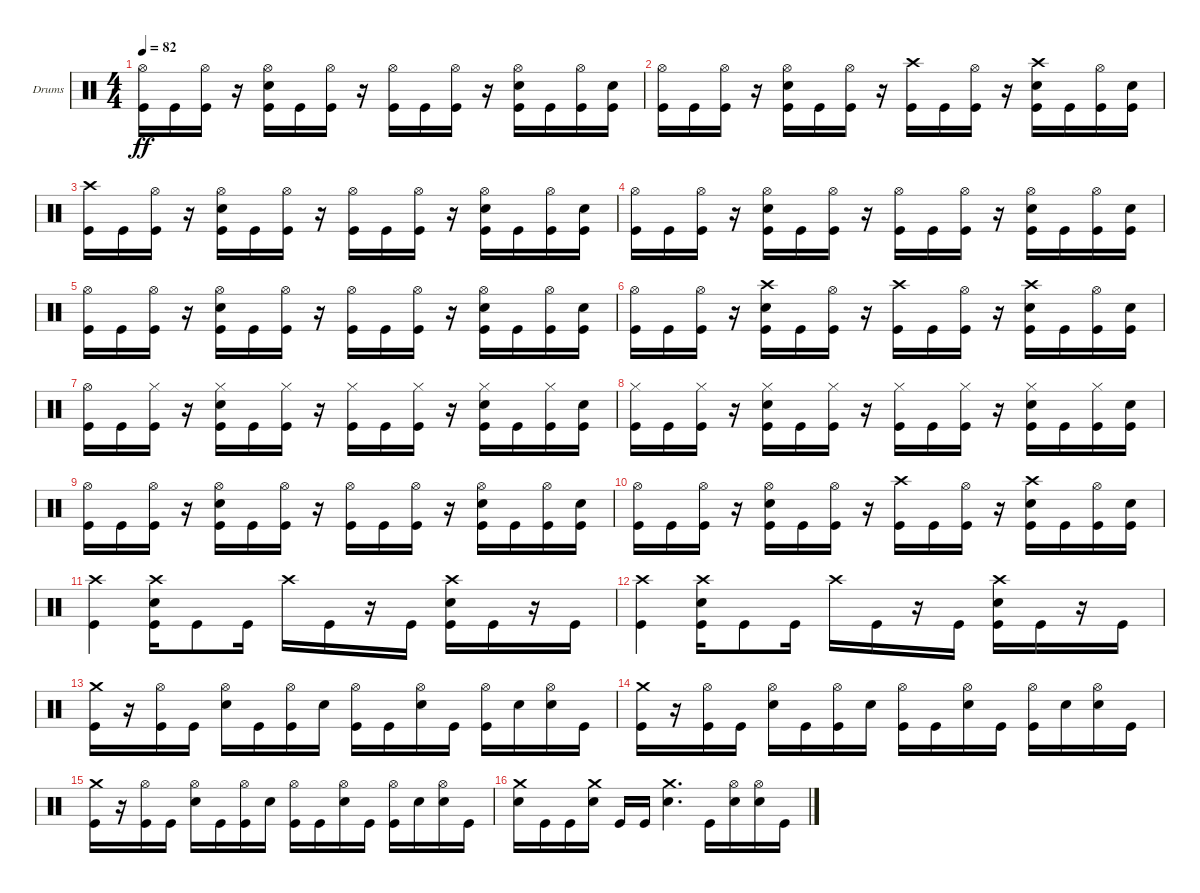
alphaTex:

\bracketExtendMode groupsimilarinstruments
\firstSystemTrackNameOrientation horizontal
\otherSystemsTrackNameOrientation horizontal
\track ("Drumkit" "Drums") {instrument percussion}
\staff {score}
\articulation defaults
\ts (4 4)
\tempo 82
\clef neutral
\ks c
("Kick (hit)" "Hi-Hat (open)").16{dy ff} "Kick (hit)".16 ("Kick (hit)" "Hi-Hat (open)").16 r.16 ("Kick (hit)" "Snare (hit) 2" "Hi-Hat (open)").16 "Kick (hit)".16 ("Kick (hit)" "Hi-Hat (open)").16 r.16 ("Kick (hit)" "Hi-Hat (open)").16 "Kick (hit)".16 ("Kick (hit)" "Hi-Hat (open)").16 r.16 ("Kick (hit)" "Snare (hit) 2" "Hi-Hat (open)").16 "Kick (hit)".16 ("Kick (hit)" "Hi-Hat (open)").16 ("Kick (hit)" "Snare (hit) 2").16 |
("Kick (hit)" "Hi-Hat (open)").16 "Kick (hit)".16 ("Kick (hit)" "Hi-Hat (open)").16 r.16 ("Kick (hit)" "Snare (hit) 2" "Hi-Hat (open)").16 "Kick (hit)".16 ("Kick (hit)" "Hi-Hat (open)").16 r.16 ("Kick (hit)" "Crash high (hit)").16 "Kick (hit)".16 ("Kick (hit)" "Hi-Hat (open)").16 r.16 ("Kick (hit)" "Snare (hit) 2" "Crash high (hit)").16 "Kick (hit)".16 ("Kick (hit)" "Hi-Hat (open)").16 ("Kick (hit)" "Snare (hit) 2").16 |
("Kick (hit)" "Crash high (hit)").16 "Kick (hit)".16 ("Kick (hit)" "Hi-Hat (open)").16 r.16 ("Kick (hit)" "Snare (hit) 2" "Hi-Hat (open)").16 "Kick (hit)".16 ("Kick (hit)" "Hi-Hat (open)").16 r.16 ("Kick (hit)" "Hi-Hat (open)").16 "Kick (hit)".16 ("Kick (hit)" "Hi-Hat (open)").16 r.16 ("Kick (hit)" "Snare (hit) 2" "Hi-Hat (open)").16 "Kick (hit)".16 ("Kick (hit)" "Hi-Hat (open)").16 ("Kick (hit)" "Snare (hit) 2").16 |
("Kick (hit)" "Hi-Hat (open)").16 "Kick (hit)".16 ("Kick (hit)" "Hi-Hat (open)").16 r.16 ("Kick (hit)" "Snare (hit) 2" "Hi-Hat (open)").16 "Kick (hit)".16 ("Kick (hit)" "Hi-Hat (open)").16 r.16 ("Kick (hit)" "Hi-Hat (open)").16 "Kick (hit)".16 ("Kick (hit)" "Hi-Hat (open)").16 r.16 ("Kick (hit)" "Snare (hit) 2" "Hi-Hat (open)").16 "Kick (hit)".16 ("Kick (hit)" "Hi-Hat (open)").16 ("Kick (hit)" "Snare (hit) 2").16 |
("Kick (hit)" "Hi-Hat (open)").16 "Kick (hit)".16 ("Kick (hit)" "Hi-Hat (open)").16 r.16 ("Kick (hit)" "Snare (hit) 2" "Hi-Hat (open)").16 "Kick (hit)".16 ("Kick (hit)" "Hi-Hat (open)").16 r.16 ("Kick (hit)" "Hi-Hat (open)").16 "Kick (hit)".16 ("Kick (hit)" "Hi-Hat (open)").16 r.16 ("Kick (hit)" "Snare (hit) 2" "Hi-Hat (open)").16 "Kick (hit)".16 ("Kick (hit)" "Hi-Hat (open)").16 ("Kick (hit)" "Snare (hit) 2").16 |
("Kick (hit)" "Hi-Hat (open)").16 "Kick (hit)".16 ("Kick (hit)" "Hi-Hat (open)").16 r.16 ("Kick (hit)" "Snare (hit) 2" "Crash high (hit)").16 "Kick (hit)".16 ("Kick (hit)" "Hi-Hat (open)").16 r.16 ("Kick (hit)" "Crash high (hit)").16 "Kick (hit)".16 ("Kick (hit)" "Hi-Hat (open)").16 r.16 ("Kick (hit)" "Snare (hit) 2" "Crash high (hit)").16 "Kick (hit)".16 ("Kick (hit)" "Hi-Hat (open)").16 ("Kick (hit)" "Snare (hit) 2").16 |
("Kick (hit)" "Hi-Hat (open)").16 "Kick (hit)".16 ("Kick (hit)" "Hi-Hat (closed)").16 r.16 ("Kick (hit)" "Snare (hit) 2" "Hi-Hat (closed)").16 "Kick (hit)".16 ("Kick (hit)" "Hi-Hat (closed)").16 r.16 ("Kick (hit)" "Hi-Hat (closed)").16 "Kick (hit)".16 ("Kick (hit)" "Hi-Hat (closed)").16 r.16 ("Kick (hit)" "Snare (hit) 2" "Hi-Hat (closed)").16 "Kick (hit)".16 ("Kick (hit)" "Hi-Hat (closed)").16 ("Kick (hit)" "Snare (hit) 2").16 |
("Kick (hit)" "Hi-Hat (closed)").16 "Kick (hit)".16 ("Kick (hit)" "Hi-Hat (closed)").16 r.16 ("Kick (hit)" "Snare (hit) 2" "Hi-Hat (closed)").16 "Kick (hit)".16 ("Kick (hit)" "Hi-Hat (closed)").16 r.16 ("Kick (hit)" "Hi-Hat (closed)").16 "Kick (hit)".16 ("Kick (hit)" "Hi-Hat (closed)").16 r.16 ("Kick (hit)" "Snare (hit) 2" "Hi-Hat (closed)").16 "Kick (hit)".16 ("Kick (hit)" "Hi-Hat (closed)").16 ("Kick (hit)" "Snare (hit) 2").16 |
("Kick (hit)" "Hi-Hat (open)").16 "Kick (hit)".16 ("Kick (hit)" "Hi-Hat (open)").16 r.16 ("Kick (hit)" "Snare (hit) 2" "Hi-Hat (open)").16 "Kick (hit)".16 ("Kick (hit)" "Hi-Hat (open)").16 r.16 ("Kick (hit)" "Hi-Hat (open)").16 "Kick (hit)".16 ("Kick (hit)" "Hi-Hat (open)").16 r.16 ("Kick (hit)" "Snare (hit) 2" "Hi-Hat (open)").16 "Kick (hit)".16 ("Kick (hit)" "Hi-Hat (open)").16 ("Kick (hit)" "Snare (hit) 2").16 |
("Kick (hit)" "Hi-Hat (open)").16 "Kick (hit)".16 ("Kick (hit)" "Hi-Hat (open)").16 r.16 ("Kick (hit)" "Snare (hit) 2" "Hi-Hat (open)").16 "Kick (hit)".16 ("Kick (hit)" "Hi-Hat (open)").16 r.16 ("Kick (hit)" "Crash high (hit)").16 "Kick (hit)".16 ("Kick (hit)" "Hi-Hat (open)").16 r.16 ("Kick (hit)" "Snare (hit) 2" "Crash high (hit)").16 "Kick (hit)".16 ("Kick (hit)" "Hi-Hat (open)").16 ("Kick (hit)" "Snare (hit) 2").16 |
("Crash high (hit)" "Kick (hit)").4 ("Kick (hit)" "Snare (hit) 2" "Crash high (hit)").16 "Kick (hit)".8 "Kick (hit)".16 "Crash high (hit)".16 "Kick (hit)".16 r.16 "Kick (hit)".16 ("Kick (hit)" "Snare (hit) 2" "Crash high (hit)").16 "Kick (hit)".16 r.16 "Kick (hit)".16 |
("Crash high (hit)" "Kick (hit)").4 ("Kick (hit)" "Snare (hit) 2" "Crash high (hit)").16 "Kick (hit)".8 "Kick (hit)".16 "Crash high (hit)".16 "Kick (hit)".16 r.16 "Kick (hit)".16 ("Kick (hit)" "Snare (hit) 2" "Crash high (hit)").16 "Kick (hit)".16 r.16 "Kick (hit)".16 |
("Crash medium (hit)" "Kick (hit)").16 r.16 ("Kick (hit)" "Hi-Hat (open)").16 "Kick (hit)".16 ("Snare (hit) 2" "Hi-Hat (open)").16 "Kick (hit)".16 ("Kick (hit)" "Hi-Hat (open)").16 "Snare (hit) 2".16 ("Kick (hit)" "Hi-Hat (open)").16 "Kick (hit)".16 ("Snare (hit) 2" "Hi-Hat (open)").16 "Kick (hit)".16 ("Kick (hit)" "Hi-Hat (open)").16 "Snare (hit) 2".16 ("Snare (hit) 2" "Hi-Hat (open)").16 "Kick (hit)".16 |
("Crash medium (hit)" "Kick (hit)").16 r.16 ("Kick (hit)" "Hi-Hat (open)").16 "Kick (hit)".16 ("Snare (hit) 2" "Hi-Hat (open)").16 "Kick (hit)".16 ("Kick (hit)" "Hi-Hat (open)").16 "Snare (hit) 2".16 ("Kick (hit)" "Hi-Hat (open)").16 "Kick (hit)".16 ("Snare (hit) 2" "Hi-Hat (open)").16 "Kick (hit)".16 ("Kick (hit)" "Hi-Hat (open)").16 "Snare (hit) 2".16 ("Snare (hit) 2" "Hi-Hat (open)").16 "Kick (hit)".16 |
("Crash medium (hit)" "Kick (hit)").16 r.16 ("Kick (hit)" "Hi-Hat (open)").16 "Kick (hit)".16 ("Snare (hit) 2" "Hi-Hat (open)").16 "Kick (hit)".16 ("Kick (hit)" "Hi-Hat (open)").16 "Snare (hit) 2".16 ("Kick (hit)" "Hi-Hat (open)").16 "Kick (hit)".16 ("Snare (hit) 2" "Hi-Hat (open)").16 "Kick (hit)".16 ("Kick (hit)" "Hi-Hat (open)").16 "Snare (hit) 2".16 ("Snare (hit) 2" "Hi-Hat (open)").16 "Kick (hit)".16 |
("Crash medium (hit)" "Snare (hit) 2").16 "Kick (hit)".16 "Kick (hit)".16 ("Crash medium (hit)" "Snare (hit) 2").16 "Kick (hit)".16 "Kick (hit)".16 ("Crash medium (hit)" "Snare (hit) 2").4{d} "Kick (hit)".16 ("Snare (hit) 2" "Hi-Hat (open)").16 ("Snare (hit) 2" "Hi-Hat (open)").16 "Kick (hit)".16
